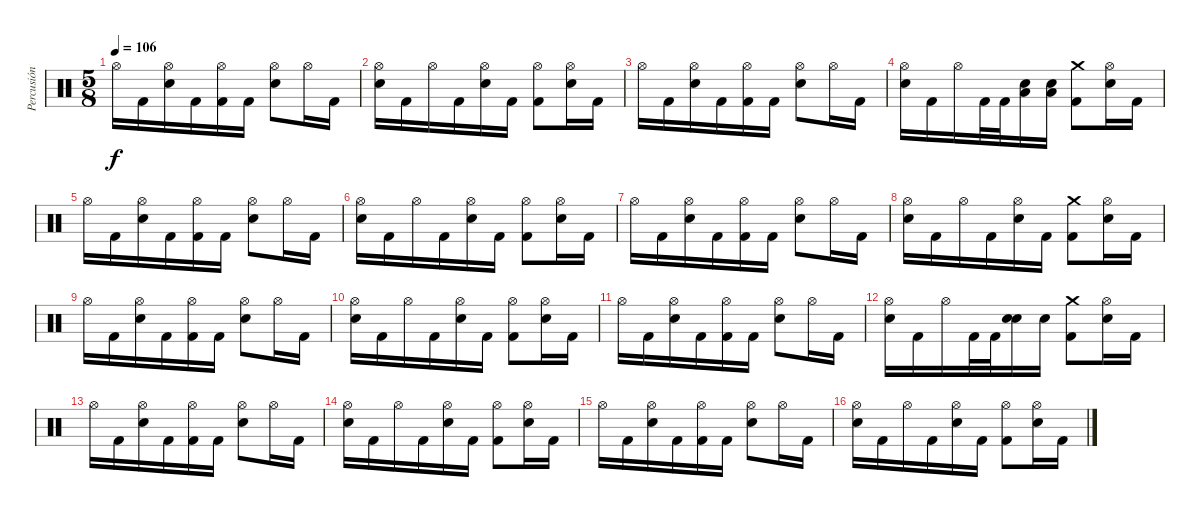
\track ("Percusión" "Percusión") {instrument percussion}
\staff {score}
\articulation defaults
\ts (5 8)
\tempo 106
\clef neutral
\ks c "Hi-Hat (open)".16{dy f} "Kick (hit) 2".16
("Electric Snare (hit)" "Hi-Hat (open)").16 "Kick (hit) 2".16 ("Kick (hit) 2" "Hi-Hat (open)").16 "Kick (hit) 2".16 ("Electric Snare (hit)" "Hi-Hat (open)").8 "Hi-Hat (open)".16 "Kick (hit) 2".16 |
("Electric Snare (hit)" "Hi-Hat (open)").16 "Kick (hit) 2".16 "Hi-Hat (open)".16 "Kick (hit) 2".16 ("Electric Snare (hit)" "Hi-Hat (open)").16 "Kick (hit) 2".16 ("Kick (hit) 2" "Hi-Hat (open)").8 ("Electric Snare (hit)" "Hi-Hat (open)").16 "Kick (hit) 2".16 |
"Hi-Hat (open)".16 "Kick (hit) 2".16 ("Electric Snare (hit)" "Hi-Hat (open)").16 "Kick (hit) 2".16 ("Kick (hit) 2" "Hi-Hat (open)").16 "Kick (hit) 2".16 ("Electric Snare (hit)" "Hi-Hat (open)").8 "Hi-Hat (open)".16 "Kick (hit) 2".16 |
("Electric Snare (hit)" "Hi-Hat (open)").16 "Kick (hit) 2".16 "Hi-Hat (open)".16 "Kick (hit) 2".32 "Kick (hit) 2".32 ("Low Tom (hit)" "Electric Snare (hit)").16 ("Low Tom (hit)" "Electric Snare (hit)").16 ("Kick (hit) 2" "Crash medium (hit)").8 ("Electric Snare (hit)" "Hi-Hat (open)").16 "Kick (hit) 2".16 |
"Hi-Hat (open)".16 "Kick (hit) 2".16 ("Electric Snare (hit)" "Hi-Hat (open)").16 "Kick (hit) 2".16 ("Kick (hit) 2" "Hi-Hat (open)").16 "Kick (hit) 2".16 ("Electric Snare (hit)" "Hi-Hat (open)").8 "Hi-Hat (open)".16 "Kick (hit) 2".16 |
("Electric Snare (hit)" "Hi-Hat (open)").16 "Kick (hit) 2".16 "Hi-Hat (open)".16 "Kick (hit) 2".16 ("Electric Snare (hit)" "Hi-Hat (open)").16 "Kick (hit) 2".16 ("Kick (hit) 2" "Hi-Hat (open)").8 ("Electric Snare (hit)" "Hi-Hat (open)").16 "Kick (hit) 2".16 |
"Hi-Hat (open)".16 "Kick (hit) 2".16 ("Electric Snare (hit)" "Hi-Hat (open)").16 "Kick (hit) 2".16 ("Kick (hit) 2" "Hi-Hat (open)").16 "Kick (hit) 2".16 ("Electric Snare (hit)" "Hi-Hat (open)").8 "Hi-Hat (open)".16 "Kick (hit) 2".16 |
("Electric Snare (hit)" "Hi-Hat (open)").16 "Kick (hit) 2".16 "Hi-Hat (open)".16 "Kick (hit) 2".16 ("Electric Snare (hit)" "Hi-Hat (open)").16 "Kick (hit) 2".16 ("Crash medium (hit)" "Kick (hit) 2").8 ("Electric Snare (hit)" "Hi-Hat (open)").16 "Kick (hit) 2".16 |
"Hi-Hat (open)".16 "Kick (hit) 2".16 ("Electric Snare (hit)" "Hi-Hat (open)").16 "Kick (hit) 2".16 ("Kick (hit) 2" "Hi-Hat (open)").16 "Kick (hit) 2".16 ("Electric Snare (hit)" "Hi-Hat (open)").8 "Hi-Hat (open)".16 "Kick (hit) 2".16 |
("Electric Snare (hit)" "Hi-Hat (open)").16 "Kick (hit) 2".16 "Hi-Hat (open)".16 "Kick (hit) 2".16 ("Electric Snare (hit)" "Hi-Hat (open)").16 "Kick (hit) 2".16 ("Kick (hit) 2" "Hi-Hat (open)").8 ("Electric Snare (hit)" "Hi-Hat (open)").16 "Kick (hit) 2".16 |
"Hi-Hat (open)".16 "Kick (hit) 2".16 ("Electric Snare (hit)" "Hi-Hat (open)").16 "Kick (hit) 2".16 ("Kick (hit) 2" "Hi-Hat (open)").16 "Kick (hit) 2".16 ("Electric Snare (hit)" "Hi-Hat (open)").8 "Hi-Hat (open)".16 "Kick (hit) 2".16 |
("Electric Snare (hit)" "Hi-Hat (open)").16 "Kick (hit) 2".16 "Hi-Hat (open)".16 "Kick (hit) 2".32 "Kick (hit) 2".32 ("Electric Snare (hit)" "Electric Snare (hit)").16 "Electric Snare (hit)".16 ("Kick (hit) 2" "Crash medium (hit)").8 ("Electric Snare (hit)" "Hi-Hat (open)").16 "Kick (hit) 2".16 |
"Hi-Hat (open)".16 "Kick (hit) 2".16 ("Electric Snare (hit)" "Hi-Hat (open)").16 "Kick (hit) 2".16 ("Kick (hit) 2" "Hi-Hat (open)").16 "Kick (hit) 2".16 ("Electric Snare (hit)" "Hi-Hat (open)").8 "Hi-Hat (open)".16 "Kick (hit) 2".16 |
("Electric Snare (hit)" "Hi-Hat (open)").16 "Kick (hit) 2".16 "Hi-Hat (open)".16 "Kick (hit) 2".16 ("Electric Snare (hit)" "Hi-Hat (open)").16 "Kick (hit) 2".16 ("Kick (hit) 2" "Hi-Hat (open)").8 ("Electric Snare (hit)" "Hi-Hat (open)").16 "Kick (hit) 2".16 |
"Hi-Hat (open)".16 "Kick (hit) 2".16 ("Electric Snare (hit)" "Hi-Hat (open)").16 "Kick (hit) 2".16 ("Kick (hit) 2" "Hi-Hat (open)").16 "Kick (hit) 2".16 ("Electric Snare (hit)" "Hi-Hat (open)").8 "Hi-Hat (open)".16 "Kick (hit) 2".16 |
("Electric Snare (hit)" "Hi-Hat (open)").16 "Kick (hit) 2".16 "Hi-Hat (open)".16 "Kick (hit) 2".16 ("Electric Snare (hit)" "Hi-Hat (open)").16 "Kick (hit) 2".16 ("Kick (hit) 2" "Hi-Hat (open)").8 ("Electric Snare (hit)" "Hi-Hat (open)").16 "Kick (hit) 2".16
